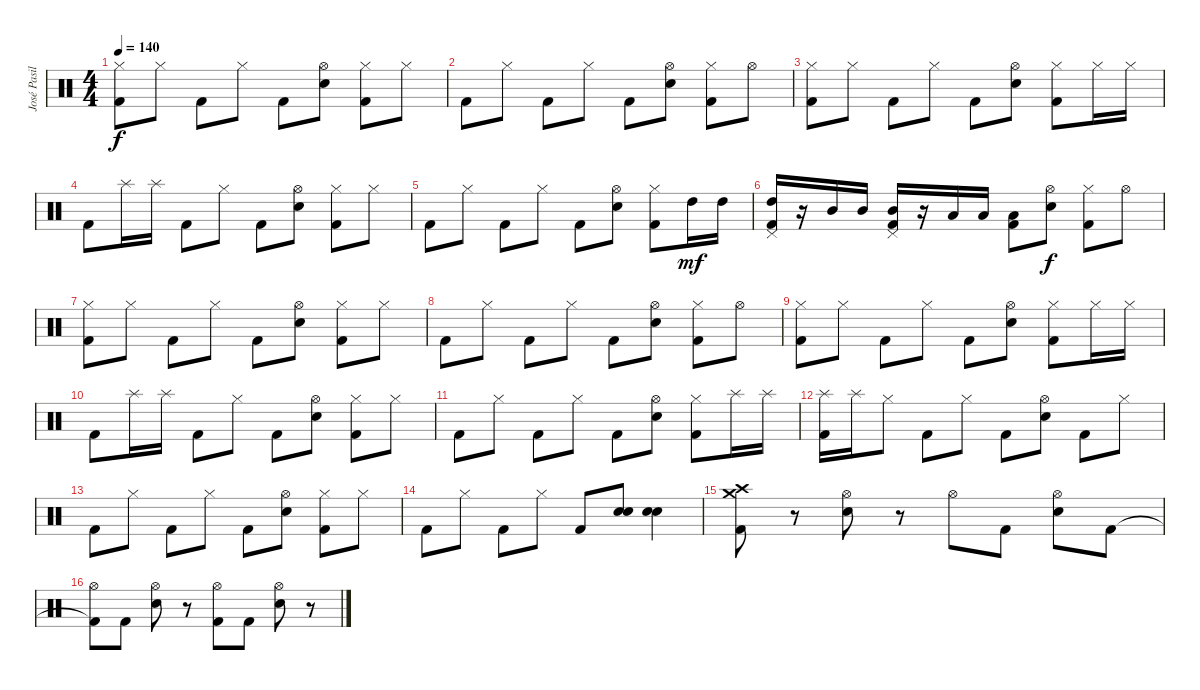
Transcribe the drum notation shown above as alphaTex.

\track ("José Pasillas [Drums]" "José Pasil") {instrument percussion}
\staff {score}
\articulation defaults
\ts (4 4)
\tempo 140
\clef neutral
\ks c
("Kick (hit) 2" "Hi-Hat (closed)").8{dy f} "Hi-Hat (closed)".8 "Kick (hit) 2".8 "Hi-Hat (closed)".8 "Kick (hit) 2".8 ("Snare (hit) 2" "Hi-Hat (open)").8 ("Kick (hit) 2" "Hi-Hat (closed)").8 "Hi-Hat (closed)".8 |
"Kick (hit) 2".8 "Hi-Hat (closed)".8 "Kick (hit) 2".8 "Hi-Hat (closed)".8 "Kick (hit) 2".8 ("Snare (hit) 2" "Hi-Hat (open)").8 ("Kick (hit) 2" "Hi-Hat (closed)").8 "Hi-Hat (open)".8 |
("Kick (hit) 2" "Hi-Hat (closed)").8 "Hi-Hat (closed)".8 "Kick (hit) 2".8 "Hi-Hat (closed)".8 "Kick (hit) 2".8 ("Snare (hit) 2" "Hi-Hat (open)").8 ("Kick (hit) 2" "Hi-Hat (closed)").8 "Hi-Hat (closed)".16 "Hi-Hat (closed)".16 |
"Kick (hit) 2".8 "Splash (hit)".16 "Splash (hit)".16 "Kick (hit) 2".8 "Hi-Hat (closed)".8 "Kick (hit) 2".8 ("Snare (hit) 2" "Hi-Hat (open)").8 ("Kick (hit) 2" "Hi-Hat (closed)").8 "Hi-Hat (closed)".8 |
"Kick (hit) 2".8 "Hi-Hat (closed)".8 "Kick (hit) 2".8 "Hi-Hat (closed)".8 "Kick (hit) 2".8 ("Snare (hit) 2" "Hi-Hat (open)").8 ("Kick (hit) 2" "Hi-Hat (closed)").8 "High Tom (hit)".16{dy mf} "High Tom (hit)".16 |
("Kick (hit) 2" "High Tom (hit)" "Pedal Hi-Hat (hit)").16 r.16 "Mid Tom (hit)".16 "Mid Tom (hit)".16 ("Kick (hit) 2" "Mid Tom (hit)" "Pedal Hi-Hat (hit)").16 r.16 "Low Tom (hit)".16 "Low Tom (hit)".16 ("Kick (hit) 2" "Low Tom (hit)").8 ("Snare (hit) 2" "Hi-Hat (open)").8{dy f} ("Kick (hit) 2" "Hi-Hat (closed)").8 "Hi-Hat (open)".8 |
("Kick (hit) 2" "Hi-Hat (closed)").8 "Hi-Hat (closed)".8 "Kick (hit) 2".8 "Hi-Hat (closed)".8 "Kick (hit) 2".8 ("Snare (hit) 2" "Hi-Hat (open)").8 ("Kick (hit) 2" "Hi-Hat (closed)").8 "Hi-Hat (closed)".8 |
"Kick (hit) 2".8 "Hi-Hat (closed)".8 "Kick (hit) 2".8 "Hi-Hat (closed)".8 "Kick (hit) 2".8 ("Snare (hit) 2" "Hi-Hat (open)").8 ("Kick (hit) 2" "Hi-Hat (closed)").8 "Hi-Hat (open)".8 |
("Kick (hit) 2" "Hi-Hat (closed)").8 "Hi-Hat (closed)".8 "Kick (hit) 2".8 "Hi-Hat (closed)".8 "Kick (hit) 2".8 ("Snare (hit) 2" "Hi-Hat (open)").8 ("Kick (hit) 2" "Hi-Hat (closed)").8 "Hi-Hat (closed)".16 "Hi-Hat (closed)".16 |
"Kick (hit) 2".8 "Splash (hit)".16 "Splash (hit)".16 "Kick (hit) 2".8 "Hi-Hat (closed)".8 "Kick (hit) 2".8 ("Snare (hit) 2" "Hi-Hat (open)").8 ("Kick (hit) 2" "Hi-Hat (closed)").8 "Hi-Hat (closed)".8 |
"Kick (hit) 2".8 "Hi-Hat (closed)".8 "Kick (hit) 2".8 "Hi-Hat (closed)".8 "Kick (hit) 2".8 ("Snare (hit) 2" "Hi-Hat (open)").8 ("Kick (hit) 2" "Hi-Hat (closed)").8 "Splash (hit)".16 "Splash (hit)".16 |
("Kick (hit) 2" "Splash (hit)").16 "Splash (hit)".16 "Hi-Hat (closed)".8 "Kick (hit) 2".8 "Hi-Hat (closed)".8 "Kick (hit) 2".8 ("Snare (hit) 2" "Hi-Hat (open)").8 "Kick (hit) 2".8 "Hi-Hat (closed)".8 |
"Kick (hit) 2".8 "Hi-Hat (closed)".8 "Kick (hit) 2".8 "Hi-Hat (closed)".8 "Kick (hit) 2".8 ("Snare (hit) 2" "Hi-Hat (open)").8 ("Kick (hit) 2" "Hi-Hat (closed)").8 "Hi-Hat (closed)".8 |
"Kick (hit) 2".8 "Hi-Hat (closed)".8 "Kick (hit) 2".8 "Hi-Hat (closed)".8 "Kick (hit) 2".8 ("Electric Snare (hit)" "Electric Snare (hit)").8 ("Electric Snare (hit)" "Electric Snare (hit)").4 |
("Kick (hit) 2" "Crash high (hit)" "Crash medium (hit)").8 r.8 ("Electric Snare (hit)" "Hi-Hat (open)").8 r.8 "Hi-Hat (open)".8 "Kick (hit) 2".8 ("Electric Snare (hit)" "Hi-Hat (open)").8 "Kick (hit) 2".8 |
("Kick (hit) 2"{t} "Hi-Hat (open)").8 "Kick (hit) 2".8 ("Electric Snare (hit)" "Hi-Hat (open)").8 r.8 ("Kick (hit) 2" "Hi-Hat (open)").8 "Kick (hit) 2".8 ("Electric Snare (hit)" "Hi-Hat (open)").8 r.8
